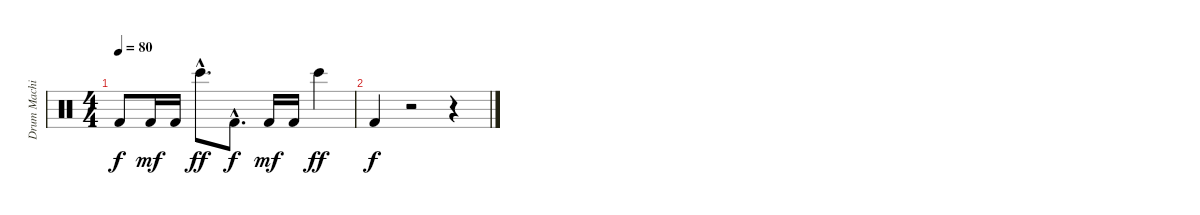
\track ("Drum Machine" "Drum Machi") {instrument percussion}
\staff {score}
\articulation defaults
\ts (4 4)
\tempo 80
\clef neutral
\ks c "Kick (hit) 2".8{dy f} "Kick (hit) 2".16{dy mf} "Kick (hit) 2".16 "Bongo High (hit)"{hac}.8{d dy ff} "Kick (hit) 2"{hac}.8{d dy f} "Kick (hit) 2".16{dy mf} "Kick (hit) 2".16 "Bongo High (hit)".4{dy ff}
|
"Kick (hit) 2".4{dy f} r.2 r.4
